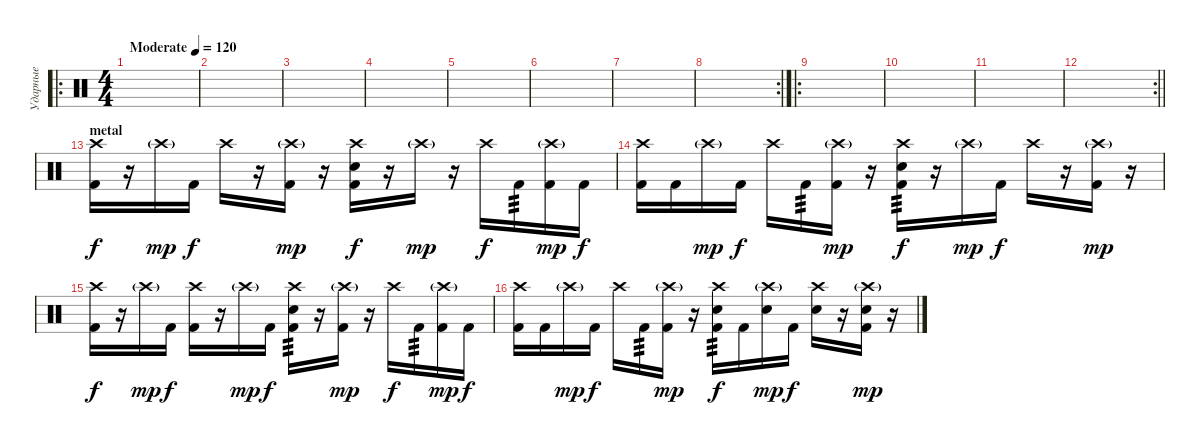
\track ("Ударные" "Ударные") {instrument percussion}
\staff {score}
\articulation defaults
\ro
\ts (4 4)
\tempo (120 "Moderate")
\clef neutral
\ks c
|
|
|
|
|
|
|
\rc 2
|
\ro
|
|
|
\rc 2
\barLineRight lightlight
|
\section ("" "metal")
("Crash high (hit)" "Kick (hit) 2").16 r.16 "Crash high (hit)"{g}.16{dy mp} "Kick (hit) 2".16{dy f} "Crash high (hit)".16 r.16 ("Crash high (hit)"{g} "Kick (hit) 2").16{dy mp} r.16 ("Crash high (hit)" "Snare (hit) 2" "Kick (hit) 2").16{dy f} r.16 "Crash high (hit)"{g}.16{dy mp} r.16 "Crash high (hit)".16{dy f} "Kick (hit) 2".16{tp 3} ("Crash high (hit)"{g} "Kick (hit) 2").16{dy mp} "Kick (hit) 2".16{dy f} |
("Crash high (hit)" "Kick (hit) 2").16 "Kick (hit) 2".16 "Crash high (hit)"{g}.16{dy mp} "Kick (hit) 2".16{dy f} "Crash high (hit)".16 "Kick (hit) 2".16{tp 3} ("Crash high (hit)"{g} "Kick (hit) 2").16{dy mp} r.16 ("Crash high (hit)" "Snare (hit) 2" "Kick (hit) 2").16{tp 3 dy f} r.16 "Crash high (hit)"{g}.16{dy mp} "Kick (hit) 2".16{dy f} "Crash high (hit)".16 r.16 ("Crash high (hit)"{g} "Kick (hit) 2").16{dy mp} r.16 |
("Crash high (hit)" "Kick (hit) 2").16{dy f} r.16 "Crash high (hit)"{g}.16{dy mp} "Kick (hit) 2".16{dy f} ("Crash high (hit)" "Kick (hit) 2").16 r.16 "Crash high (hit)"{g}.16{dy mp} "Kick (hit) 2".16{dy f} ("Crash high (hit)" "Snare (hit) 2" "Kick (hit) 2").16{tp 3} r.16 ("Crash high (hit)"{g} "Kick (hit) 2").16{dy mp} r.16 "Crash high (hit)".16{dy f} "Kick (hit) 2".16{tp 3} ("Crash high (hit)"{g} "Kick (hit) 2").16{dy mp} "Kick (hit) 2".16{dy f} |
("Crash high (hit)" "Kick (hit) 2").16 "Kick (hit) 2".16 "Crash high (hit)"{g}.16{dy mp} "Kick (hit) 2".16{dy f} "Crash high (hit)".16 "Kick (hit) 2".16{tp 3} ("Crash high (hit)"{g} "Kick (hit) 2").16{dy mp} r.16 ("Crash high (hit)" "Snare (hit) 2" "Kick (hit) 2").16{tp 3 dy f} "Kick (hit) 2".16 ("Crash high (hit)"{g} "Snare (hit) 2").16{dy mp} "Kick (hit) 2".16{dy f} ("Crash high (hit)" "Snare (hit) 2").16 r.16 ("Crash high (hit)"{g} "Snare (hit) 2" "Kick (hit) 2").16{dy mp} r.16
